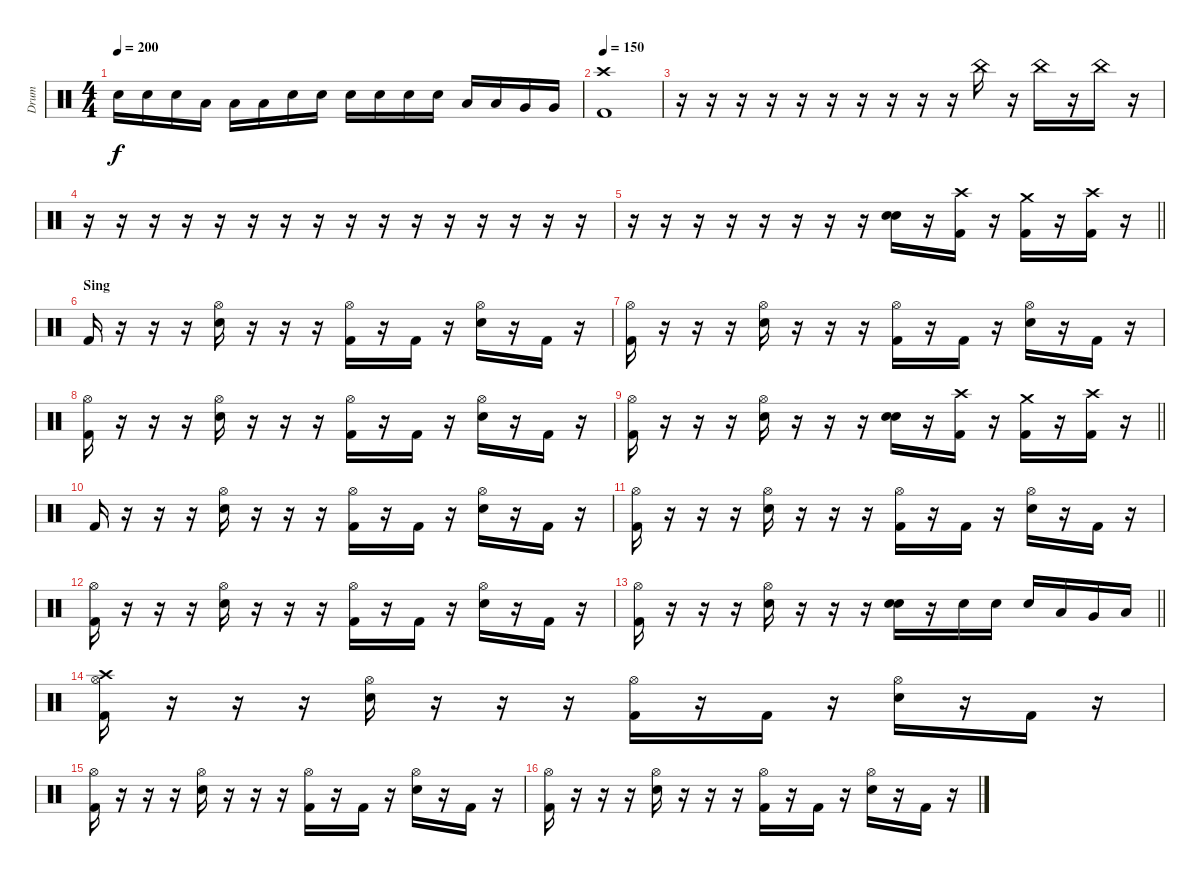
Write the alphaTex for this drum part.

\track ("Drum" "Drum") {instrument percussion}
\staff {score}
\articulation defaults
\ts (4 4)
\tempo 200
\clef neutral
\ks c "Electric Snare (hit)".16{dy f} "Electric Snare (hit)".16 "Electric Snare (hit)".16 "Low Floor Tom (hit)".16 "Low Floor Tom (hit)".16 "Low Floor Tom (hit)".16 "Electric Snare (hit)".16 "Electric Snare (hit)".16 "Electric Snare (hit)".16 "Electric Snare (hit)".16 "Electric Snare (hit)".16 "Electric Snare (hit)".16 "Low Floor Tom (hit)".16 "Low Floor Tom (hit)".16 "Very Low Tom (hit)".16 "Very Low Tom (hit)".16
|
\tempo 150
("Crash high (hit)" "Kick (hit) 2").1 |
r.16 r.16 r.16 r.16 r.16 r.16 r.16 r.16 r.16 r.16 "China (hit)".16 r.16 "China (hit)".16 r.16 "China (hit)".16 r.16 |
r.16 r.16 r.16 r.16 r.16 r.16 r.16 r.16 r.16 r.16 r.16 r.16 r.16 r.16 r.16 r.16 |
\barLineRight lightlight
r.16 r.16 r.16 r.16 r.16 r.16 r.16 r.16 ("Electric Snare (hit)" "Electric Snare (hit)").16 r.16 ("Crash high (hit)" "Kick (hit) 2").16 r.16 ("Crash medium (hit)" "Kick (hit) 2").16 r.16 ("Crash high (hit)" "Kick (hit) 2").16 r.16 |
\section ("" "Sing")
"Kick (hit) 2".16 r.16 r.16 r.16 ("Hi-Hat (open)" "Electric Snare (hit)").16 r.16 r.16 r.16 ("Hi-Hat (open)" "Kick (hit) 2").16 r.16 "Kick (hit) 2".16 r.16 ("Hi-Hat (open)" "Electric Snare (hit)").16 r.16 "Kick (hit) 2".16 r.16 |
("Hi-Hat (open)" "Kick (hit) 2").16 r.16 r.16 r.16 ("Hi-Hat (open)" "Electric Snare (hit)").16 r.16 r.16 r.16 ("Hi-Hat (open)" "Kick (hit) 2").16 r.16 "Kick (hit) 2".16 r.16 ("Hi-Hat (open)" "Electric Snare (hit)").16 r.16 "Kick (hit) 2".16 r.16 |
("Hi-Hat (open)" "Kick (hit) 2").16 r.16 r.16 r.16 ("Hi-Hat (open)" "Electric Snare (hit)").16 r.16 r.16 r.16 ("Hi-Hat (open)" "Kick (hit) 2").16 r.16 "Kick (hit) 2".16 r.16 ("Hi-Hat (open)" "Electric Snare (hit)").16 r.16 "Kick (hit) 2".16 r.16 |
\barLineRight lightlight
("Hi-Hat (open)" "Kick (hit) 2").16 r.16 r.16 r.16 ("Hi-Hat (open)" "Electric Snare (hit)").16 r.16 r.16 r.16 ("Electric Snare (hit)" "Electric Snare (hit)").16 r.16 ("Crash high (hit)" "Kick (hit) 2").16 r.16 ("Crash medium (hit)" "Kick (hit) 2").16 r.16 ("Crash high (hit)" "Kick (hit) 2").16 r.16 |
"Kick (hit) 2".16 r.16 r.16 r.16 ("Hi-Hat (open)" "Electric Snare (hit)").16 r.16 r.16 r.16 ("Hi-Hat (open)" "Kick (hit) 2").16 r.16 "Kick (hit) 2".16 r.16 ("Hi-Hat (open)" "Electric Snare (hit)").16 r.16 "Kick (hit) 2".16 r.16 |
("Hi-Hat (open)" "Kick (hit) 2").16 r.16 r.16 r.16 ("Hi-Hat (open)" "Electric Snare (hit)").16 r.16 r.16 r.16 ("Hi-Hat (open)" "Kick (hit) 2").16 r.16 "Kick (hit) 2".16 r.16 ("Hi-Hat (open)" "Electric Snare (hit)").16 r.16 "Kick (hit) 2".16 r.16 |
("Hi-Hat (open)" "Kick (hit) 2").16 r.16 r.16 r.16 ("Hi-Hat (open)" "Electric Snare (hit)").16 r.16 r.16 r.16 ("Hi-Hat (open)" "Kick (hit) 2").16 r.16 "Kick (hit) 2".16 r.16 ("Hi-Hat (open)" "Electric Snare (hit)").16 r.16 "Kick (hit) 2".16 r.16 |
\barLineRight lightlight
("Hi-Hat (open)" "Kick (hit) 2").16 r.16 r.16 r.16 ("Hi-Hat (open)" "Electric Snare (hit)").16 r.16 r.16 r.16 ("Electric Snare (hit)" "Electric Snare (hit)").16 r.16 "Electric Snare (hit)".16 "Electric Snare (hit)".16 "Electric Snare (hit)".16 "Low Floor Tom (hit)".16 "Very Low Tom (hit)".16 "Low Floor Tom (hit)".16 |
("Hi-Hat (open)" "Crash high (hit)" "Kick (hit) 2").16 r.16 r.16 r.16 ("Hi-Hat (open)" "Electric Snare (hit)").16 r.16 r.16 r.16 ("Hi-Hat (open)" "Kick (hit) 2").16 r.16 "Kick (hit) 2".16 r.16 ("Hi-Hat (open)" "Electric Snare (hit)").16 r.16 "Kick (hit) 2".16 r.16 |
("Hi-Hat (open)" "Kick (hit) 2").16 r.16 r.16 r.16 ("Hi-Hat (open)" "Electric Snare (hit)").16 r.16 r.16 r.16 ("Hi-Hat (open)" "Kick (hit) 2").16 r.16 "Kick (hit) 2".16 r.16 ("Hi-Hat (open)" "Electric Snare (hit)").16 r.16 "Kick (hit) 2".16 r.16 |
("Hi-Hat (open)" "Kick (hit) 2").16 r.16 r.16 r.16 ("Hi-Hat (open)" "Electric Snare (hit)").16 r.16 r.16 r.16 ("Hi-Hat (open)" "Kick (hit) 2").16 r.16 "Kick (hit) 2".16 r.16 ("Hi-Hat (open)" "Electric Snare (hit)").16 r.16 "Kick (hit) 2".16 r.16
